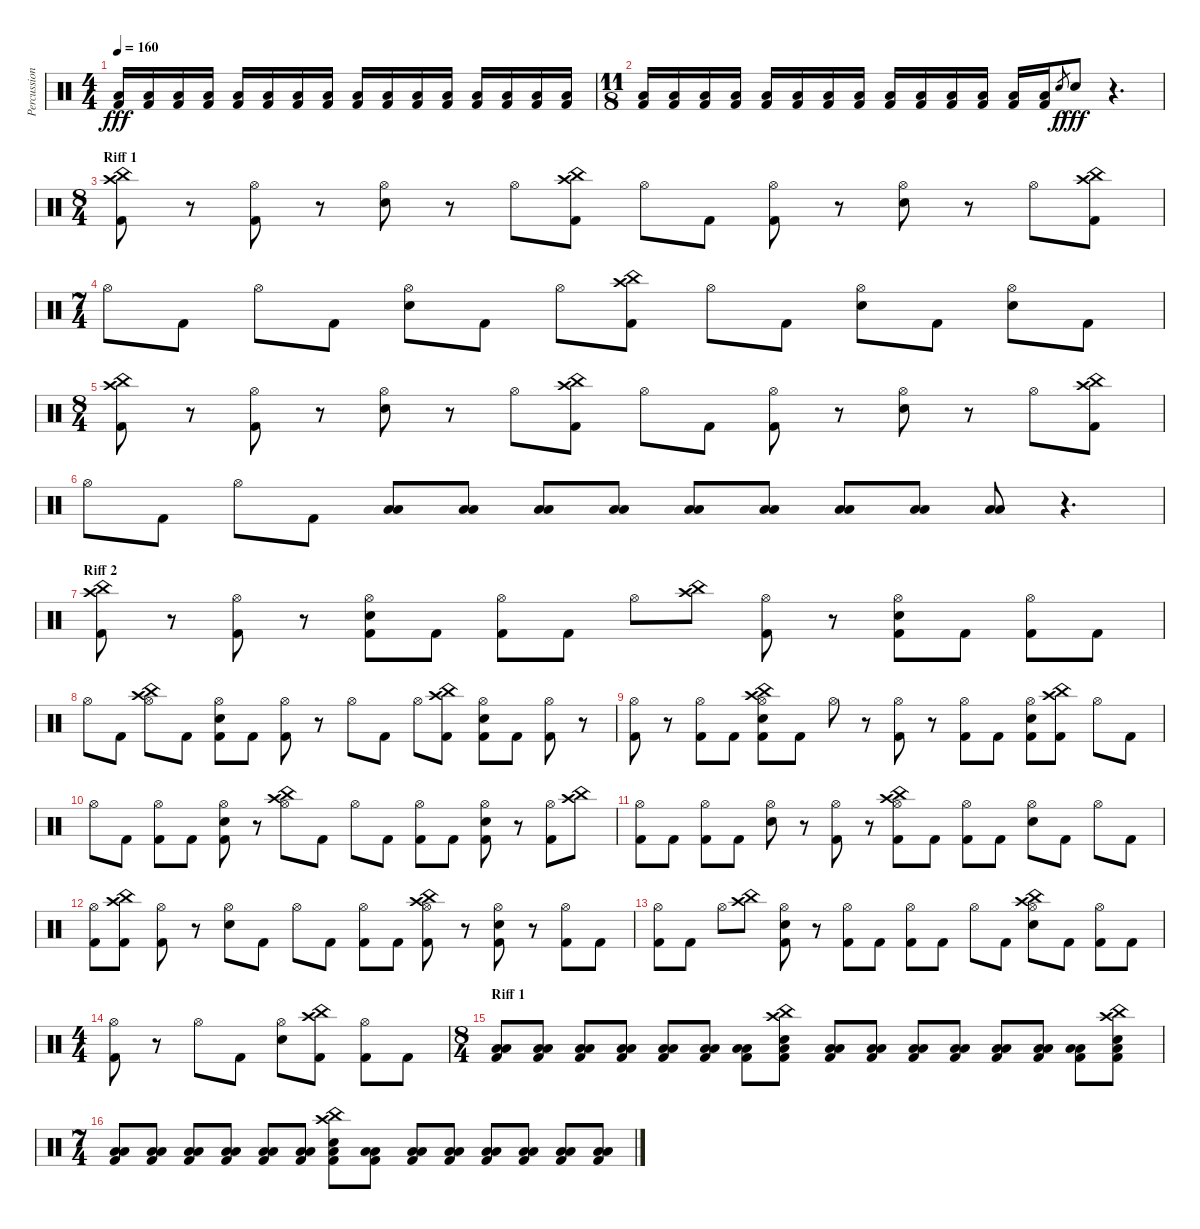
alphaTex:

\track ("Percussion" "Percussion") {instrument percussion}
\staff {score}
\articulation defaults
\ts (4 4)
\tempo 160
\clef neutral
\ks c
("Low Floor Tom (hit)" "Kick (hit) 2").16{dy fff} ("Low Tom (hit)" "Kick (hit) 2").16 ("Low Floor Tom (hit)" "Kick (hit) 2").16 ("Low Tom (hit)" "Kick (hit) 2").16 ("Low Floor Tom (hit)" "Kick (hit) 2").16 ("Low Tom (hit)" "Kick (hit) 2").16 ("Low Floor Tom (hit)" "Kick (hit) 2").16 ("Low Tom (hit)" "Kick (hit) 2").16 ("Low Floor Tom (hit)" "Kick (hit) 2").16 ("Low Tom (hit)" "Kick (hit) 2").16 ("Low Floor Tom (hit)" "Kick (hit) 2").16 ("Low Tom (hit)" "Kick (hit) 2").16 ("Low Floor Tom (hit)" "Kick (hit) 2").16 ("Low Tom (hit)" "Kick (hit) 2").16 ("Low Floor Tom (hit)" "Kick (hit) 2").16 ("Low Tom (hit)" "Kick (hit) 2").16 |
\ts (11 8)
("Low Floor Tom (hit)" "Kick (hit) 2").16 ("Low Tom (hit)" "Kick (hit) 2").16 ("Low Floor Tom (hit)" "Kick (hit) 2").16 ("Low Tom (hit)" "Kick (hit) 2").16 ("Low Floor Tom (hit)" "Kick (hit) 2").16 ("Low Tom (hit)" "Kick (hit) 2").16 ("Low Floor Tom (hit)" "Kick (hit) 2").16 ("Low Tom (hit)" "Kick (hit) 2").16 ("Low Floor Tom (hit)" "Kick (hit) 2").16 ("Low Tom (hit)" "Kick (hit) 2").16 ("Low Floor Tom (hit)" "Kick (hit) 2").16 ("Low Tom (hit)" "Kick (hit) 2").16 ("Low Floor Tom (hit)" "Kick (hit) 2").16 ("Low Tom (hit)" "Kick (hit) 2").16 "Electric Snare (hit)".8{gr dy f} "Electric Snare (hit)".8{dy fff} r.4{d} |
\ts (8 4)
\section ("" "Riff 1")
("China (hit)" "Crash high (hit)" "Kick (hit) 2").8 r.8 ("Hi-Hat (open)" "Kick (hit) 2").8 r.8 ("Hi-Hat (open)" "Electric Snare (hit)").8 r.8 "Hi-Hat (open)".8 ("China (hit)" "Crash high (hit)" "Kick (hit) 2").8 "Hi-Hat (open)".8 "Kick (hit) 2".8 ("Hi-Hat (open)" "Kick (hit) 2").8 r.8 ("Hi-Hat (open)" "Electric Snare (hit)").8 r.8 "Hi-Hat (open)".8 ("China (hit)" "Crash high (hit)" "Kick (hit) 2").8 |
\ts (7 4)
"Hi-Hat (open)".8 "Kick (hit) 2".8 "Hi-Hat (open)".8 "Kick (hit) 2".8 ("Hi-Hat (open)" "Electric Snare (hit)").8 "Kick (hit) 2".8 "Hi-Hat (open)".8 ("China (hit)" "Crash high (hit)" "Kick (hit) 2").8 "Hi-Hat (open)".8 "Kick (hit) 2".8 ("Hi-Hat (open)" "Electric Snare (hit)").8 "Kick (hit) 2".8 ("Hi-Hat (open)" "Electric Snare (hit)").8 "Kick (hit) 2".8 |
\ts (8 4)
("China (hit)" "Crash high (hit)" "Kick (hit) 2").8 r.8 ("Hi-Hat (open)" "Kick (hit) 2").8 r.8 ("Hi-Hat (open)" "Electric Snare (hit)").8 r.8 "Hi-Hat (open)".8 ("China (hit)" "Crash high (hit)" "Kick (hit) 2").8 "Hi-Hat (open)".8 "Kick (hit) 2".8 ("Hi-Hat (open)" "Kick (hit) 2").8 r.8 ("Hi-Hat (open)" "Electric Snare (hit)").8 r.8 "Hi-Hat (open)".8 ("China (hit)" "Crash high (hit)" "Kick (hit) 2").8 |
"Hi-Hat (open)".8 "Kick (hit) 2".8 "Hi-Hat (open)".8 "Kick (hit) 2".8 ("Low Tom (hit)" "Low Floor Tom (hit)").8 ("Low Tom (hit)" "Low Floor Tom (hit)").8 ("Low Tom (hit)" "Low Floor Tom (hit)").8 ("Low Tom (hit)" "Low Floor Tom (hit)").8 ("Low Tom (hit)" "Low Floor Tom (hit)").8 ("Low Tom (hit)" "Low Floor Tom (hit)").8 ("Low Tom (hit)" "Low Floor Tom (hit)").8 ("Low Tom (hit)" "Low Floor Tom (hit)").8 ("Low Tom (hit)" "Low Floor Tom (hit)").8 r.4{d} |
\section ("" "Riff 2")
("China (hit)" "Crash high (hit)" "Kick (hit) 2").8 r.8 ("Hi-Hat (open)" "Kick (hit) 2").8 r.8 ("Hi-Hat (open)" "Electric Snare (hit)" "Kick (hit) 2").8 "Kick (hit) 2".8 ("Hi-Hat (open)" "Kick (hit) 2").8 "Kick (hit) 2".8 "Hi-Hat (open)".8 ("China (hit)" "Crash high (hit)").8 ("Hi-Hat (open)" "Kick (hit) 2").8 r.8 ("Hi-Hat (open)" "Electric Snare (hit)" "Kick (hit) 2").8 "Kick (hit) 2".8 ("Hi-Hat (open)" "Kick (hit) 2").8 "Kick (hit) 2".8 |
"Hi-Hat (open)".8 "Kick (hit) 2".8 ("China (hit)" "Crash high (hit)" "Hi-Hat (open)").8 "Kick (hit) 2".8 ("Hi-Hat (open)" "Electric Snare (hit)" "Kick (hit) 2").8 "Kick (hit) 2".8 ("Hi-Hat (open)" "Kick (hit) 2").8 r.8 "Hi-Hat (open)".8 "Kick (hit) 2".8 "Hi-Hat (open)".8 ("China (hit)" "Crash high (hit)" "Kick (hit) 2").8 ("Hi-Hat (open)" "Electric Snare (hit)" "Kick (hit) 2").8 "Kick (hit) 2".8 ("Hi-Hat (open)" "Kick (hit) 2").8 r.8 |
("Hi-Hat (open)" "Kick (hit) 2").8 r.8 ("Hi-Hat (open)" "Kick (hit) 2").8 "Kick (hit) 2".8 ("China (hit)" "Crash high (hit)" "Hi-Hat (open)" "Electric Snare (hit)" "Kick (hit) 2").8 "Kick (hit) 2".8 "Hi-Hat (open)".8 r.8 ("Hi-Hat (open)" "Kick (hit) 2").8 r.8 ("Hi-Hat (open)" "Kick (hit) 2").8 "Kick (hit) 2".8 ("Hi-Hat (open)" "Electric Snare (hit)" "Kick (hit) 2").8 ("China (hit)" "Crash high (hit)" "Kick (hit) 2").8 "Hi-Hat (open)".8 "Kick (hit) 2".8 |
"Hi-Hat (open)".8 "Kick (hit) 2".8 ("Hi-Hat (open)" "Kick (hit) 2").8 "Kick (hit) 2".8 ("Hi-Hat (open)" "Electric Snare (hit)" "Kick (hit) 2").8 r.8 ("China (hit)" "Crash high (hit)" "Hi-Hat (open)").8 "Kick (hit) 2".8 "Hi-Hat (open)".8 "Kick (hit) 2".8 ("Hi-Hat (open)" "Kick (hit) 2").8 "Kick (hit) 2".8 ("Hi-Hat (open)" "Electric Snare (hit)" "Kick (hit) 2").8 r.8 ("Hi-Hat (open)" "Kick (hit) 2").8 ("China (hit)" "Crash high (hit)").8 |
("Hi-Hat (open)" "Kick (hit) 2").8 "Kick (hit) 2".8 ("Hi-Hat (open)" "Kick (hit) 2").8 "Kick (hit) 2".8 ("Hi-Hat (open)" "Electric Snare (hit)").8 r.8 ("Hi-Hat (open)" "Kick (hit) 2").8 r.8 ("China (hit)" "Crash high (hit)" "Hi-Hat (open)" "Kick (hit) 2").8 "Kick (hit) 2".8 ("Hi-Hat (open)" "Kick (hit) 2").8 "Kick (hit) 2".8 ("Hi-Hat (open)" "Electric Snare (hit)").8 "Kick (hit) 2".8 "Hi-Hat (open)".8 "Kick (hit) 2".8 |
("Hi-Hat (open)" "Kick (hit) 2").8 ("China (hit)" "Crash high (hit)" "Kick (hit) 2").8 ("Hi-Hat (open)" "Kick (hit) 2").8 r.8 ("Hi-Hat (open)" "Electric Snare (hit)").8 "Kick (hit) 2".8 "Hi-Hat (open)".8 "Kick (hit) 2".8 ("Hi-Hat (open)" "Kick (hit) 2").8 "Kick (hit) 2".8 ("China (hit)" "Crash high (hit)" "Hi-Hat (open)" "Kick (hit) 2").8 r.8 ("Hi-Hat (open)" "Electric Snare (hit)" "Kick (hit) 2").8 r.8 ("Hi-Hat (open)" "Kick (hit) 2").8 "Kick (hit) 2".8 |
("Hi-Hat (open)" "Kick (hit) 2").8 "Kick (hit) 2".8 "Hi-Hat (open)".8 ("China (hit)" "Crash high (hit)").8 ("Hi-Hat (open)" "Electric Snare (hit)" "Kick (hit) 2").8 r.8 ("Hi-Hat (open)" "Kick (hit) 2").8 "Kick (hit) 2".8 ("Hi-Hat (open)" "Kick (hit) 2").8 "Kick (hit) 2".8 "Hi-Hat (open)".8 "Kick (hit) 2".8 ("China (hit)" "Crash high (hit)" "Hi-Hat (open)" "Electric Snare (hit)").8 "Kick (hit) 2".8 ("Hi-Hat (open)" "Kick (hit) 2").8 "Kick (hit) 2".8 |
\ts (4 4)
("Hi-Hat (open)" "Kick (hit) 2").8 r.8 "Hi-Hat (open)".8 "Kick (hit) 2".8 ("Hi-Hat (open)" "Electric Snare (hit)").8 ("China (hit)" "Crash high (hit)" "Kick (hit) 2").8 ("Hi-Hat (open)" "Kick (hit) 2").8 "Kick (hit) 2".8 |
\ts (8 4)
\section ("" "Riff 1")
("Low Floor Tom (hit)" "Low Floor Tom (hit)" "Kick (hit) 2").8 ("Low Floor Tom (hit)" "Low Floor Tom (hit)" "Kick (hit) 2").8 ("Low Floor Tom (hit)" "Low Floor Tom (hit)" "Kick (hit) 2").8 ("Low Floor Tom (hit)" "Low Floor Tom (hit)" "Kick (hit) 2").8 ("Low Floor Tom (hit)" "Low Floor Tom (hit)" "Kick (hit) 2").8 ("Low Floor Tom (hit)" "Low Floor Tom (hit)" "Kick (hit) 2").8 ("Low Floor Tom (hit)" "Low Floor Tom (hit)" "Kick (hit) 2").8 ("China (hit)" "Crash high (hit)" "Electric Snare (hit)" "Low Floor Tom (hit)" "Kick (hit) 2").8 ("Low Floor Tom (hit)" "Low Floor Tom (hit)" "Kick (hit) 2").8 ("Low Floor Tom (hit)" "Low Floor Tom (hit)" "Kick (hit) 2").8 ("Low Floor Tom (hit)" "Low Floor Tom (hit)" "Kick (hit) 2").8 ("Low Floor Tom (hit)" "Low Floor Tom (hit)" "Kick (hit) 2").8 ("Low Floor Tom (hit)" "Low Floor Tom (hit)" "Kick (hit) 2").8 ("Low Floor Tom (hit)" "Low Floor Tom (hit)" "Kick (hit) 2").8 ("Low Floor Tom (hit)" "Low Floor Tom (hit)" "Kick (hit) 2").8 ("China (hit)" "Crash high (hit)" "Electric Snare (hit)" "Low Floor Tom (hit)" "Kick (hit) 2").8 |
\ts (7 4)
("Low Floor Tom (hit)" "Low Floor Tom (hit)" "Kick (hit) 2").8 ("Low Floor Tom (hit)" "Low Floor Tom (hit)" "Kick (hit) 2").8 ("Low Floor Tom (hit)" "Low Floor Tom (hit)" "Kick (hit) 2").8 ("Low Floor Tom (hit)" "Low Floor Tom (hit)" "Kick (hit) 2").8 ("Low Floor Tom (hit)" "Low Floor Tom (hit)" "Kick (hit) 2").8 ("Low Floor Tom (hit)" "Low Floor Tom (hit)" "Kick (hit) 2").8 ("China (hit)" "Crash high (hit)" "Electric Snare (hit)" "Low Floor Tom (hit)" "Kick (hit) 2").8 ("Low Floor Tom (hit)" "Low Floor Tom (hit)" "Kick (hit) 2").8 ("Low Floor Tom (hit)" "Low Floor Tom (hit)" "Kick (hit) 2").8 ("Low Floor Tom (hit)" "Low Floor Tom (hit)" "Kick (hit) 2").8 ("Low Floor Tom (hit)" "Low Floor Tom (hit)" "Kick (hit) 2").8 ("Low Floor Tom (hit)" "Low Floor Tom (hit)" "Kick (hit) 2").8 ("Low Floor Tom (hit)" "Low Floor Tom (hit)" "Kick (hit) 2").8 ("Low Floor Tom (hit)" "Low Floor Tom (hit)" "Kick (hit) 2").8
